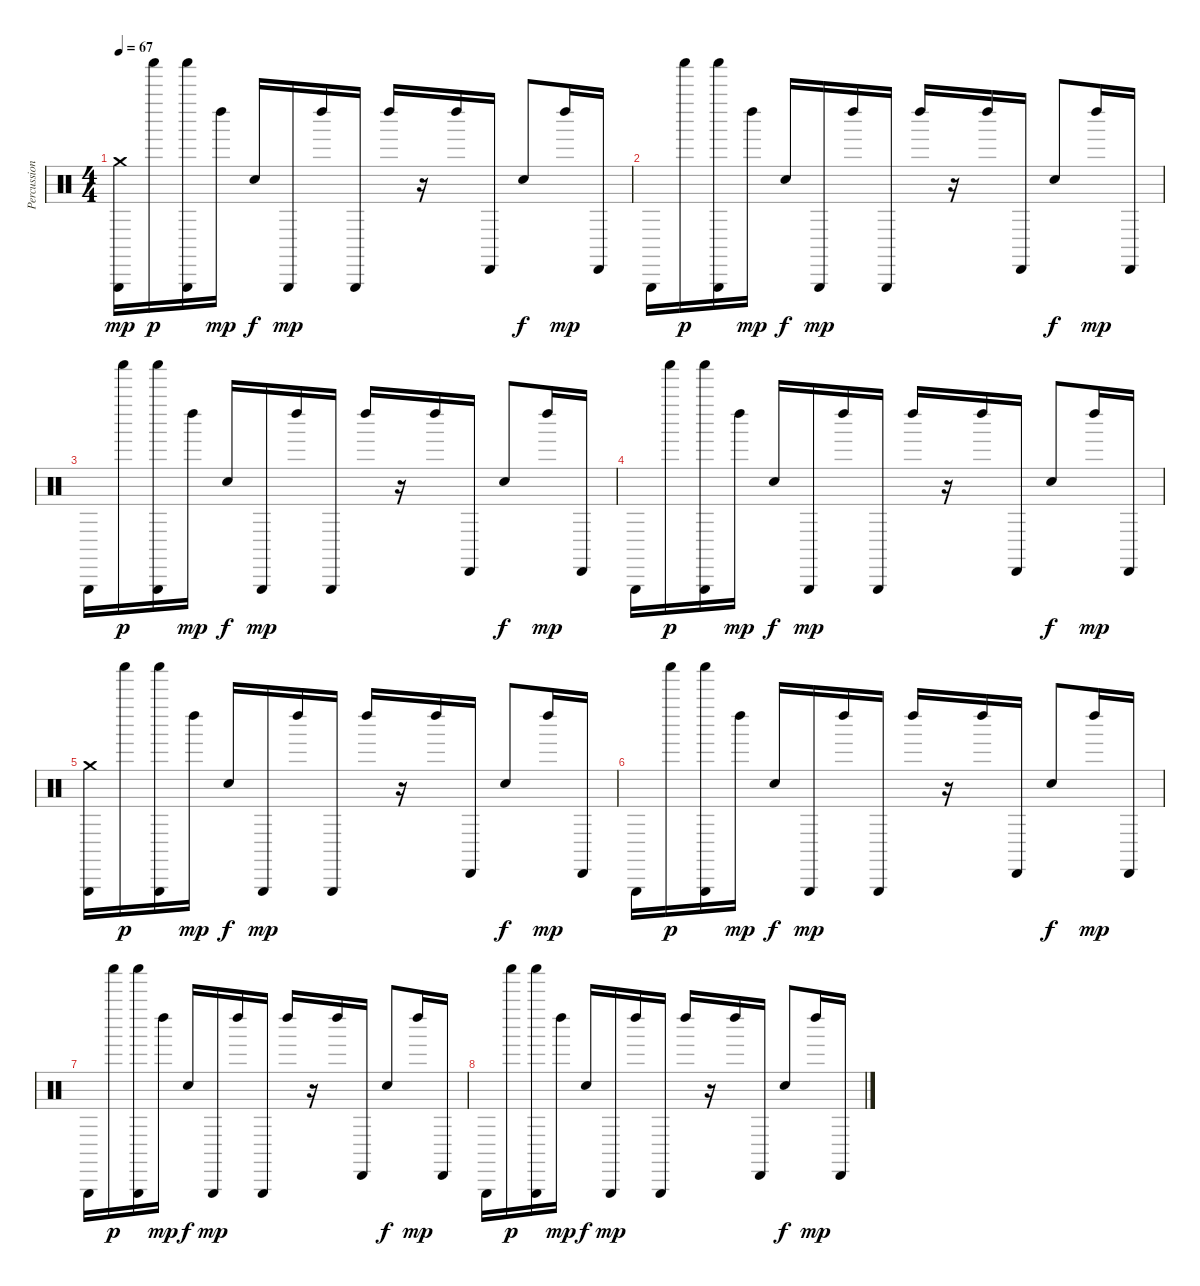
\track ("Percussion" "Percussion") {instrument percussion}
\staff {score}
\articulation defaults
\ts (4 4)
\tempo 67
\clef neutral
\ks c
("Crash medium (hit)" "Triangle (hit)").16{dy mp} "Shaker (hit)".16{dy p} ("Triangle (hit)" "Shaker (hit)").16 "Left Maraca (hit)".16{dy mp} "Snare (hit) 2".16{dy f} "Triangle (hit)".16{dy mp} "Left Maraca (hit)".16 "Triangle (hit)".16 "Left Maraca (hit)".16 r.16 "Left Maraca (hit)".16 "Cabasa (hit)".16 "Snare (hit) 2".8{dy f} "Left Maraca (hit)".16{dy mp} "Cabasa (hit)".16 |
"Triangle (hit)".16 "Shaker (hit)".16{dy p} ("Triangle (hit)" "Shaker (hit)").16 "Left Maraca (hit)".16{dy mp} "Snare (hit) 2".16{dy f} "Triangle (hit)".16{dy mp} "Left Maraca (hit)".16 "Triangle (hit)".16 "Left Maraca (hit)".16 r.16 "Left Maraca (hit)".16 "Cabasa (hit)".16 "Snare (hit) 2".8{dy f} "Left Maraca (hit)".16{dy mp} "Cabasa (hit)".16 |
"Triangle (hit)".16 "Shaker (hit)".16{dy p} ("Triangle (hit)" "Shaker (hit)").16 "Left Maraca (hit)".16{dy mp} "Snare (hit) 2".16{dy f} "Triangle (hit)".16{dy mp} "Left Maraca (hit)".16 "Triangle (hit)".16 "Left Maraca (hit)".16 r.16 "Left Maraca (hit)".16 "Cabasa (hit)".16 "Snare (hit) 2".8{dy f} "Left Maraca (hit)".16{dy mp} "Cabasa (hit)".16 |
"Triangle (hit)".16 "Shaker (hit)".16{dy p} ("Triangle (hit)" "Shaker (hit)").16 "Left Maraca (hit)".16{dy mp} "Snare (hit) 2".16{dy f} "Triangle (hit)".16{dy mp} "Left Maraca (hit)".16 "Triangle (hit)".16 "Left Maraca (hit)".16 r.16 "Left Maraca (hit)".16 "Cabasa (hit)".16 "Snare (hit) 2".8{dy f} "Left Maraca (hit)".16{dy mp} "Cabasa (hit)".16 |
("Crash medium (hit)" "Triangle (hit)").16 "Shaker (hit)".16{dy p} ("Triangle (hit)" "Shaker (hit)").16 "Left Maraca (hit)".16{dy mp} "Snare (hit) 2".16{dy f} "Triangle (hit)".16{dy mp} "Left Maraca (hit)".16 "Triangle (hit)".16 "Left Maraca (hit)".16 r.16 "Left Maraca (hit)".16 "Cabasa (hit)".16 "Snare (hit) 2".8{dy f} "Left Maraca (hit)".16{dy mp} "Cabasa (hit)".16 |
"Triangle (hit)".16 "Shaker (hit)".16{dy p} ("Triangle (hit)" "Shaker (hit)").16 "Left Maraca (hit)".16{dy mp} "Snare (hit) 2".16{dy f} "Triangle (hit)".16{dy mp} "Left Maraca (hit)".16 "Triangle (hit)".16 "Left Maraca (hit)".16 r.16 "Left Maraca (hit)".16 "Cabasa (hit)".16 "Snare (hit) 2".8{dy f} "Left Maraca (hit)".16{dy mp} "Cabasa (hit)".16 |
"Triangle (hit)".16 "Shaker (hit)".16{dy p} ("Triangle (hit)" "Shaker (hit)").16 "Left Maraca (hit)".16{dy mp} "Snare (hit) 2".16{dy f} "Triangle (hit)".16{dy mp} "Left Maraca (hit)".16 "Triangle (hit)".16 "Left Maraca (hit)".16 r.16 "Left Maraca (hit)".16 "Cabasa (hit)".16 "Snare (hit) 2".8{dy f} "Left Maraca (hit)".16{dy mp} "Cabasa (hit)".16 |
"Triangle (hit)".16 "Shaker (hit)".16{dy p} ("Triangle (hit)" "Shaker (hit)").16 "Left Maraca (hit)".16{dy mp} "Snare (hit) 2".16{dy f} "Triangle (hit)".16{dy mp} "Left Maraca (hit)".16 "Triangle (hit)".16 "Left Maraca (hit)".16 r.16 "Left Maraca (hit)".16 "Cabasa (hit)".16 "Snare (hit) 2".8{dy f} "Left Maraca (hit)".16{dy mp} "Cabasa (hit)".16
